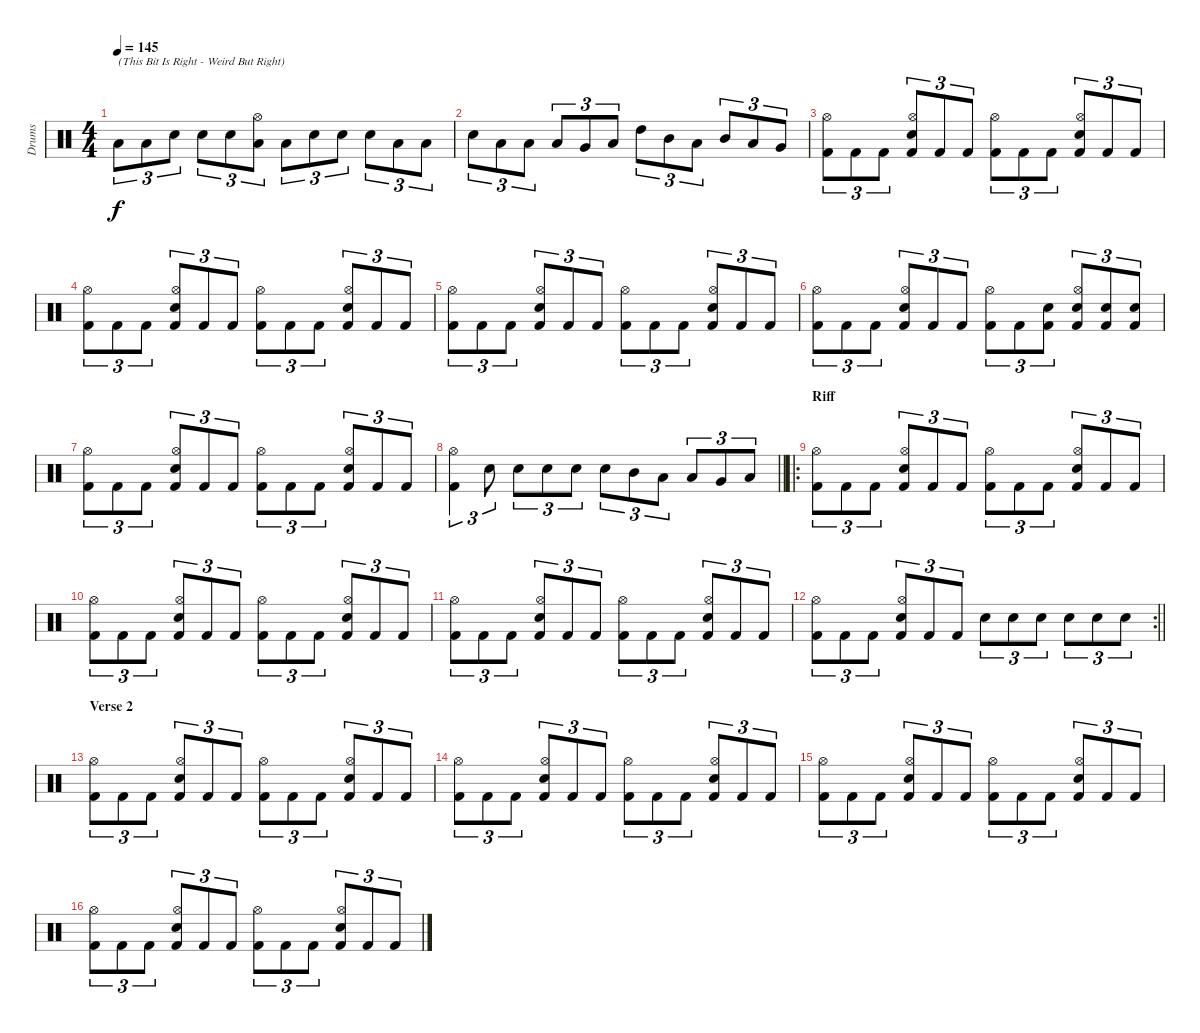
\track ("Drums" "Drums") {instrument percussion}
\staff {score}
\articulation defaults
\ts (4 4)
\tempo 145
\clef neutral
\ks c "Low Tom (hit)".8{tu (3 2) txt "(This Bit Is Right - Weird But Right)" dy f} "Low Tom (hit)".8{tu (3 2)} "Electric Snare (hit)".8{tu (3 2)} "Electric Snare (hit)".8{tu (3 2)} "Electric Snare (hit)".8{tu (3 2)}
("Hi-Hat (open)" "Low Tom (hit)").8{tu (3 2)} "Low Tom (hit)".8{tu (3 2)} "Electric Snare (hit)".8{tu (3 2)} "Electric Snare (hit)".8{tu (3 2)} "Electric Snare (hit)".8{tu (3 2)} "Low Tom (hit)".8{tu (3 2)} "Low Tom (hit)".8{tu (3 2)} |
"Electric Snare (hit)".8{tu (3 2)} "Low Tom (hit)".8{tu (3 2)} "Low Tom (hit)".8{tu (3 2)} "Low Tom (hit)".8{tu (3 2)} "Very Low Tom (hit)".8{tu (3 2)} "Low Floor Tom (hit)".8{tu (3 2)} "High Tom (hit)".8{tu (3 2)} "Mid Tom (hit)".8{tu (3 2)} "Low Tom (hit)".8{tu (3 2)} "Mid Tom (hit)".8{tu (3 2)} "Low Tom (hit)".8{tu (3 2)} "Very Low Tom (hit)".8{tu (3 2)} |
("Hi-Hat (open)" "Kick (hit) 2").8{tu (3 2)} "Kick (hit) 2".8{tu (3 2)} "Kick (hit) 2".8{tu (3 2)} ("Hi-Hat (open)" "Electric Snare (hit)" "Kick (hit) 2").8{tu (3 2)} "Kick (hit) 2".8{tu (3 2)} "Kick (hit) 2".8{tu (3 2)} ("Hi-Hat (open)" "Kick (hit) 2").8{tu (3 2)} "Kick (hit) 2".8{tu (3 2)} "Kick (hit) 2".8{tu (3 2)} ("Hi-Hat (open)" "Electric Snare (hit)" "Kick (hit) 2").8{tu (3 2)} "Kick (hit) 2".8{tu (3 2)} "Kick (hit) 2".8{tu (3 2)} |
("Hi-Hat (open)" "Kick (hit) 2").8{tu (3 2)} "Kick (hit) 2".8{tu (3 2)} "Kick (hit) 2".8{tu (3 2)} ("Hi-Hat (open)" "Electric Snare (hit)" "Kick (hit) 2").8{tu (3 2)} "Kick (hit) 2".8{tu (3 2)} "Kick (hit) 2".8{tu (3 2)} ("Hi-Hat (open)" "Kick (hit) 2").8{tu (3 2)} "Kick (hit) 2".8{tu (3 2)} "Kick (hit) 2".8{tu (3 2)} ("Hi-Hat (open)" "Electric Snare (hit)" "Kick (hit) 2").8{tu (3 2)} "Kick (hit) 2".8{tu (3 2)} "Kick (hit) 2".8{tu (3 2)} |
("Hi-Hat (open)" "Kick (hit) 2").8{tu (3 2)} "Kick (hit) 2".8{tu (3 2)} "Kick (hit) 2".8{tu (3 2)} ("Hi-Hat (open)" "Electric Snare (hit)" "Kick (hit) 2").8{tu (3 2)} "Kick (hit) 2".8{tu (3 2)} "Kick (hit) 2".8{tu (3 2)} ("Hi-Hat (open)" "Kick (hit) 2").8{tu (3 2)} "Kick (hit) 2".8{tu (3 2)} "Kick (hit) 2".8{tu (3 2)} ("Hi-Hat (open)" "Electric Snare (hit)" "Kick (hit) 2").8{tu (3 2)} "Kick (hit) 2".8{tu (3 2)} "Kick (hit) 2".8{tu (3 2)} |
("Hi-Hat (open)" "Kick (hit) 2").8{tu (3 2)} "Kick (hit) 2".8{tu (3 2)} "Kick (hit) 2".8{tu (3 2)} ("Hi-Hat (open)" "Electric Snare (hit)" "Kick (hit) 2").8{tu (3 2)} "Kick (hit) 2".8{tu (3 2)} "Kick (hit) 2".8{tu (3 2)} ("Hi-Hat (open)" "Kick (hit) 2").8{tu (3 2)} "Kick (hit) 2".8{tu (3 2)} ("Electric Snare (hit)" "Kick (hit) 2").8{tu (3 2)} ("Hi-Hat (open)" "Electric Snare (hit)" "Kick (hit) 2").8{tu (3 2)} ("Electric Snare (hit)" "Kick (hit) 2").8{tu (3 2)} ("Electric Snare (hit)" "Kick (hit) 2").8{tu (3 2)} |
("Hi-Hat (open)" "Kick (hit) 2").8{tu (3 2)} "Kick (hit) 2".8{tu (3 2)} "Kick (hit) 2".8{tu (3 2)} ("Hi-Hat (open)" "Electric Snare (hit)" "Kick (hit) 2").8{tu (3 2)} "Kick (hit) 2".8{tu (3 2)} "Kick (hit) 2".8{tu (3 2)} ("Hi-Hat (open)" "Kick (hit) 2").8{tu (3 2)} "Kick (hit) 2".8{tu (3 2)} "Kick (hit) 2".8{tu (3 2)} ("Hi-Hat (open)" "Electric Snare (hit)" "Kick (hit) 2").8{tu (3 2)} "Kick (hit) 2".8{tu (3 2)} "Kick (hit) 2".8{tu (3 2)} |
\barLineRight lightlight
("Hi-Hat (open)" "Kick (hit) 2").4{tu (3 2)} "Electric Snare (hit)".8{tu (3 2)} "Electric Snare (hit)".8{tu (3 2)} "Electric Snare (hit)".8{tu (3 2)} "Electric Snare (hit)".8{tu (3 2)} "Electric Snare (hit)".8{tu (3 2)} "Mid Tom (hit)".8{tu (3 2)} "Low Tom (hit)".8{tu (3 2)} "Low Tom (hit)".8{tu (3 2)} "Very Low Tom (hit)".8{tu (3 2)} "Low Floor Tom (hit)".8{tu (3 2)} |
\ro
\section ("" "Riff")
("Hi-Hat (open)" "Kick (hit) 2").8{tu (3 2)} "Kick (hit) 2".8{tu (3 2)} "Kick (hit) 2".8{tu (3 2)} ("Hi-Hat (open)" "Electric Snare (hit)" "Kick (hit) 2").8{tu (3 2)} "Kick (hit) 2".8{tu (3 2)} "Kick (hit) 2".8{tu (3 2)} ("Hi-Hat (open)" "Kick (hit) 2").8{tu (3 2)} "Kick (hit) 2".8{tu (3 2)} "Kick (hit) 2".8{tu (3 2)} ("Hi-Hat (open)" "Electric Snare (hit)" "Kick (hit) 2").8{tu (3 2)} "Kick (hit) 2".8{tu (3 2)} "Kick (hit) 2".8{tu (3 2)} |
("Hi-Hat (open)" "Kick (hit) 2").8{tu (3 2)} "Kick (hit) 2".8{tu (3 2)} "Kick (hit) 2".8{tu (3 2)} ("Hi-Hat (open)" "Electric Snare (hit)" "Kick (hit) 2").8{tu (3 2)} "Kick (hit) 2".8{tu (3 2)} "Kick (hit) 2".8{tu (3 2)} ("Hi-Hat (open)" "Kick (hit) 2").8{tu (3 2)} "Kick (hit) 2".8{tu (3 2)} "Kick (hit) 2".8{tu (3 2)} ("Hi-Hat (open)" "Electric Snare (hit)" "Kick (hit) 2").8{tu (3 2)} "Kick (hit) 2".8{tu (3 2)} "Kick (hit) 2".8{tu (3 2)} |
("Hi-Hat (open)" "Kick (hit) 2").8{tu (3 2)} "Kick (hit) 2".8{tu (3 2)} "Kick (hit) 2".8{tu (3 2)} ("Hi-Hat (open)" "Electric Snare (hit)" "Kick (hit) 2").8{tu (3 2)} "Kick (hit) 2".8{tu (3 2)} "Kick (hit) 2".8{tu (3 2)} ("Hi-Hat (open)" "Kick (hit) 2").8{tu (3 2)} "Kick (hit) 2".8{tu (3 2)} "Kick (hit) 2".8{tu (3 2)} ("Hi-Hat (open)" "Electric Snare (hit)" "Kick (hit) 2").8{tu (3 2)} "Kick (hit) 2".8{tu (3 2)} "Kick (hit) 2".8{tu (3 2)} |
\rc 2
\barLineRight lightlight
("Hi-Hat (open)" "Kick (hit) 2").8{tu (3 2)} "Kick (hit) 2".8{tu (3 2)} "Kick (hit) 2".8{tu (3 2)} ("Hi-Hat (open)" "Electric Snare (hit)" "Kick (hit) 2").8{tu (3 2)} "Kick (hit) 2".8{tu (3 2)} "Kick (hit) 2".8{tu (3 2)} "Electric Snare (hit)".8{tu (3 2)} "Electric Snare (hit)".8{tu (3 2)} "Electric Snare (hit)".8{tu (3 2)} "Electric Snare (hit)".8{tu (3 2)} "Electric Snare (hit)".8{tu (3 2)} "Electric Snare (hit)".8{tu (3 2)} |
\section ("" "Verse 2")
("Hi-Hat (open)" "Kick (hit) 2").8{tu (3 2)} "Kick (hit) 2".8{tu (3 2)} "Kick (hit) 2".8{tu (3 2)} ("Hi-Hat (open)" "Electric Snare (hit)" "Kick (hit) 2").8{tu (3 2)} "Kick (hit) 2".8{tu (3 2)} "Kick (hit) 2".8{tu (3 2)} ("Hi-Hat (open)" "Kick (hit) 2").8{tu (3 2)} "Kick (hit) 2".8{tu (3 2)} "Kick (hit) 2".8{tu (3 2)} ("Hi-Hat (open)" "Electric Snare (hit)" "Kick (hit) 2").8{tu (3 2)} "Kick (hit) 2".8{tu (3 2)} "Kick (hit) 2".8{tu (3 2)} |
("Hi-Hat (open)" "Kick (hit) 2").8{tu (3 2)} "Kick (hit) 2".8{tu (3 2)} "Kick (hit) 2".8{tu (3 2)} ("Hi-Hat (open)" "Electric Snare (hit)" "Kick (hit) 2").8{tu (3 2)} "Kick (hit) 2".8{tu (3 2)} "Kick (hit) 2".8{tu (3 2)} ("Hi-Hat (open)" "Kick (hit) 2").8{tu (3 2)} "Kick (hit) 2".8{tu (3 2)} "Kick (hit) 2".8{tu (3 2)} ("Hi-Hat (open)" "Electric Snare (hit)" "Kick (hit) 2").8{tu (3 2)} "Kick (hit) 2".8{tu (3 2)} "Kick (hit) 2".8{tu (3 2)} |
("Hi-Hat (open)" "Kick (hit) 2").8{tu (3 2)} "Kick (hit) 2".8{tu (3 2)} "Kick (hit) 2".8{tu (3 2)} ("Hi-Hat (open)" "Electric Snare (hit)" "Kick (hit) 2").8{tu (3 2)} "Kick (hit) 2".8{tu (3 2)} "Kick (hit) 2".8{tu (3 2)} ("Hi-Hat (open)" "Kick (hit) 2").8{tu (3 2)} "Kick (hit) 2".8{tu (3 2)} "Kick (hit) 2".8{tu (3 2)} ("Hi-Hat (open)" "Electric Snare (hit)" "Kick (hit) 2").8{tu (3 2)} "Kick (hit) 2".8{tu (3 2)} "Kick (hit) 2".8{tu (3 2)} |
("Hi-Hat (open)" "Kick (hit) 2").8{tu (3 2)} "Kick (hit) 2".8{tu (3 2)} "Kick (hit) 2".8{tu (3 2)} ("Hi-Hat (open)" "Electric Snare (hit)" "Kick (hit) 2").8{tu (3 2)} "Kick (hit) 2".8{tu (3 2)} "Kick (hit) 2".8{tu (3 2)} ("Hi-Hat (open)" "Kick (hit) 2").8{tu (3 2)} "Kick (hit) 2".8{tu (3 2)} "Kick (hit) 2".8{tu (3 2)} ("Hi-Hat (open)" "Electric Snare (hit)" "Kick (hit) 2").8{tu (3 2)} "Kick (hit) 2".8{tu (3 2)} "Kick (hit) 2".8{tu (3 2)}
